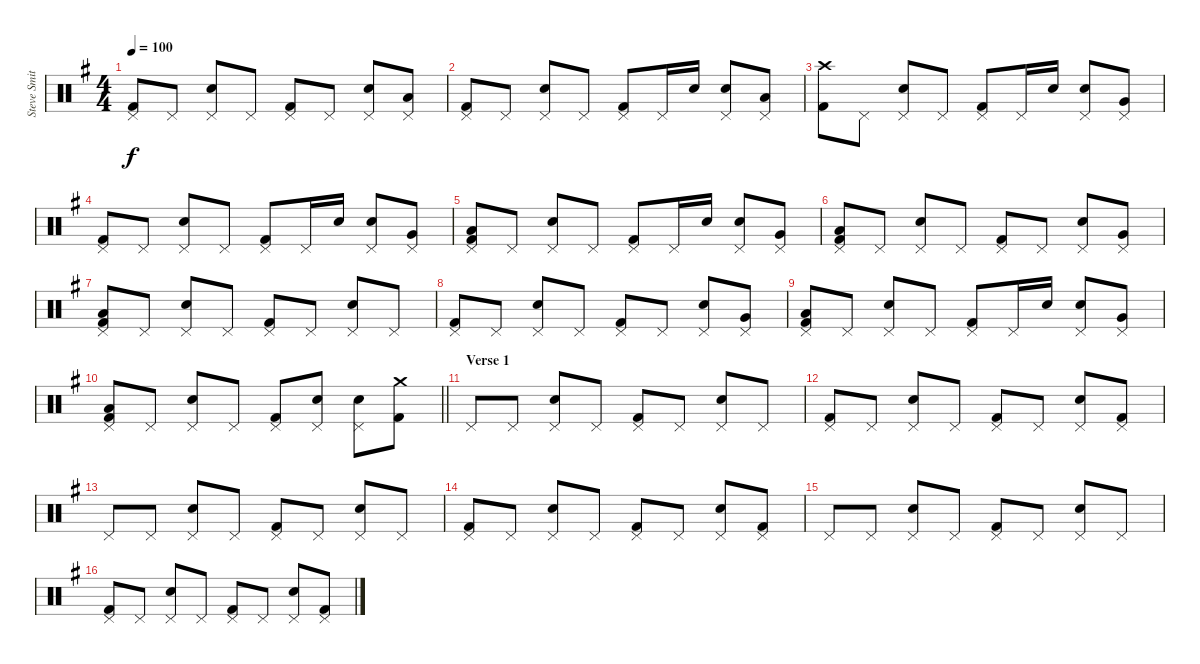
\track ("Steve Smith" "Steve Smit") {instrument percussion}
\staff {score}
\articulation defaults
\ts (4 4)
\tempo 100
\clef neutral
\ks g
("Pedal Hi-Hat (hit)" "Kick (hit) 2").8{dy f} "Pedal Hi-Hat (hit)".8 ("Pedal Hi-Hat (hit)" "Snare (hit) 2").8 "Pedal Hi-Hat (hit)".8 ("Pedal Hi-Hat (hit)" "Kick (hit) 2").8 "Pedal Hi-Hat (hit)".8 ("Pedal Hi-Hat (hit)" "Snare (hit) 2").8 ("Pedal Hi-Hat (hit)" "Low Tom (hit)").8 |
("Pedal Hi-Hat (hit)" "Kick (hit) 2").8 "Pedal Hi-Hat (hit)".8 ("Pedal Hi-Hat (hit)" "Snare (hit) 2").8 "Pedal Hi-Hat (hit)".8 ("Pedal Hi-Hat (hit)" "Kick (hit) 2").8 "Pedal Hi-Hat (hit)".16 "Snare (hit) 2".16 ("Pedal Hi-Hat (hit)" "Snare (hit) 2").8 ("Pedal Hi-Hat (hit)" "Low Tom (hit)").8 |
("Crash high (hit)" "Kick (hit) 2").8 "Pedal Hi-Hat (hit)".8 ("Pedal Hi-Hat (hit)" "Snare (hit) 2").8 "Pedal Hi-Hat (hit)".8 ("Pedal Hi-Hat (hit)" "Kick (hit) 2").8 "Pedal Hi-Hat (hit)".16 "Snare (hit) 2".16 ("Pedal Hi-Hat (hit)" "Snare (hit) 2").8 ("Pedal Hi-Hat (hit)" "Very Low Tom (hit)").8 |
("Pedal Hi-Hat (hit)" "Kick (hit) 2").8 "Pedal Hi-Hat (hit)".8 ("Pedal Hi-Hat (hit)" "Snare (hit) 2").8 "Pedal Hi-Hat (hit)".8 ("Pedal Hi-Hat (hit)" "Kick (hit) 2").8 "Pedal Hi-Hat (hit)".16 "Snare (hit) 2".16 ("Pedal Hi-Hat (hit)" "Snare (hit) 2").8 ("Pedal Hi-Hat (hit)" "Very Low Tom (hit)").8 |
("Pedal Hi-Hat (hit)" "Low Floor Tom (hit)" "Kick (hit) 2").8 "Pedal Hi-Hat (hit)".8 ("Pedal Hi-Hat (hit)" "Snare (hit) 2").8 "Pedal Hi-Hat (hit)".8 ("Pedal Hi-Hat (hit)" "Kick (hit) 2").8 "Pedal Hi-Hat (hit)".16 "Snare (hit) 2".16 ("Pedal Hi-Hat (hit)" "Snare (hit) 2").8 ("Pedal Hi-Hat (hit)" "Very Low Tom (hit)").8 |
("Pedal Hi-Hat (hit)" "Low Floor Tom (hit)" "Kick (hit) 2").8 "Pedal Hi-Hat (hit)".8 ("Pedal Hi-Hat (hit)" "Snare (hit) 2").8 "Pedal Hi-Hat (hit)".8 ("Pedal Hi-Hat (hit)" "Kick (hit) 2").8 "Pedal Hi-Hat (hit)".8 ("Pedal Hi-Hat (hit)" "Snare (hit) 2").8 ("Pedal Hi-Hat (hit)" "Very Low Tom (hit)").8 |
("Pedal Hi-Hat (hit)" "Low Floor Tom (hit)" "Kick (hit) 2").8 "Pedal Hi-Hat (hit)".8 ("Pedal Hi-Hat (hit)" "Snare (hit) 2").8 "Pedal Hi-Hat (hit)".8 ("Pedal Hi-Hat (hit)" "Kick (hit) 2").8 "Pedal Hi-Hat (hit)".8 ("Pedal Hi-Hat (hit)" "Snare (hit) 2").8 "Pedal Hi-Hat (hit)".8 |
("Pedal Hi-Hat (hit)" "Kick (hit) 2").8 "Pedal Hi-Hat (hit)".8 ("Pedal Hi-Hat (hit)" "Snare (hit) 2").8 "Pedal Hi-Hat (hit)".8 ("Pedal Hi-Hat (hit)" "Kick (hit) 2").8 "Pedal Hi-Hat (hit)".8 ("Pedal Hi-Hat (hit)" "Snare (hit) 2").8 ("Pedal Hi-Hat (hit)" "Very Low Tom (hit)").8 |
("Pedal Hi-Hat (hit)" "Low Floor Tom (hit)" "Kick (hit) 2").8 "Pedal Hi-Hat (hit)".8 ("Pedal Hi-Hat (hit)" "Snare (hit) 2").8 "Pedal Hi-Hat (hit)".8 ("Pedal Hi-Hat (hit)" "Kick (hit) 2").8 "Pedal Hi-Hat (hit)".16 "Snare (hit) 2".16 ("Pedal Hi-Hat (hit)" "Snare (hit) 2").8 ("Pedal Hi-Hat (hit)" "Very Low Tom (hit)").8 |
\barLineRight lightlight
("Pedal Hi-Hat (hit)" "Low Floor Tom (hit)" "Kick (hit) 2").8 "Pedal Hi-Hat (hit)".8 ("Pedal Hi-Hat (hit)" "Snare (hit) 2").8 "Pedal Hi-Hat (hit)".8 ("Pedal Hi-Hat (hit)" "Kick (hit) 2").8 ("Pedal Hi-Hat (hit)" "Snare (hit) 2").8 ("Pedal Hi-Hat (hit)" "Snare (hit) 2").8 ("Crash medium (hit)" "Kick (hit) 2").8 |
\section ("" "Verse 1")
"Pedal Hi-Hat (hit)".8 "Pedal Hi-Hat (hit)".8 ("Pedal Hi-Hat (hit)" "Snare (hit) 2").8 "Pedal Hi-Hat (hit)".8 ("Pedal Hi-Hat (hit)" "Kick (hit) 2").8 "Pedal Hi-Hat (hit)".8 ("Pedal Hi-Hat (hit)" "Snare (hit) 2").8 "Pedal Hi-Hat (hit)".8 |
("Pedal Hi-Hat (hit)" "Kick (hit) 2").8 "Pedal Hi-Hat (hit)".8 ("Pedal Hi-Hat (hit)" "Snare (hit) 2").8 "Pedal Hi-Hat (hit)".8 ("Pedal Hi-Hat (hit)" "Kick (hit) 2").8 "Pedal Hi-Hat (hit)".8 ("Pedal Hi-Hat (hit)" "Snare (hit) 2").8 ("Pedal Hi-Hat (hit)" "Kick (hit) 2").8 |
"Pedal Hi-Hat (hit)".8 "Pedal Hi-Hat (hit)".8 ("Pedal Hi-Hat (hit)" "Snare (hit) 2").8 "Pedal Hi-Hat (hit)".8 ("Pedal Hi-Hat (hit)" "Kick (hit) 2").8 "Pedal Hi-Hat (hit)".8 ("Pedal Hi-Hat (hit)" "Snare (hit) 2").8 "Pedal Hi-Hat (hit)".8 |
("Pedal Hi-Hat (hit)" "Kick (hit) 2").8 "Pedal Hi-Hat (hit)".8 ("Pedal Hi-Hat (hit)" "Snare (hit) 2").8 "Pedal Hi-Hat (hit)".8 ("Pedal Hi-Hat (hit)" "Kick (hit) 2").8 "Pedal Hi-Hat (hit)".8 ("Pedal Hi-Hat (hit)" "Snare (hit) 2").8 ("Pedal Hi-Hat (hit)" "Kick (hit) 2").8 |
"Pedal Hi-Hat (hit)".8 "Pedal Hi-Hat (hit)".8 ("Pedal Hi-Hat (hit)" "Snare (hit) 2").8 "Pedal Hi-Hat (hit)".8 ("Pedal Hi-Hat (hit)" "Kick (hit) 2").8 "Pedal Hi-Hat (hit)".8 ("Pedal Hi-Hat (hit)" "Snare (hit) 2").8 "Pedal Hi-Hat (hit)".8 |
("Pedal Hi-Hat (hit)" "Kick (hit) 2").8 "Pedal Hi-Hat (hit)".8 ("Pedal Hi-Hat (hit)" "Snare (hit) 2").8 "Pedal Hi-Hat (hit)".8 ("Pedal Hi-Hat (hit)" "Kick (hit) 2").8 "Pedal Hi-Hat (hit)".8 ("Pedal Hi-Hat (hit)" "Snare (hit) 2").8 ("Pedal Hi-Hat (hit)" "Kick (hit) 2").8
